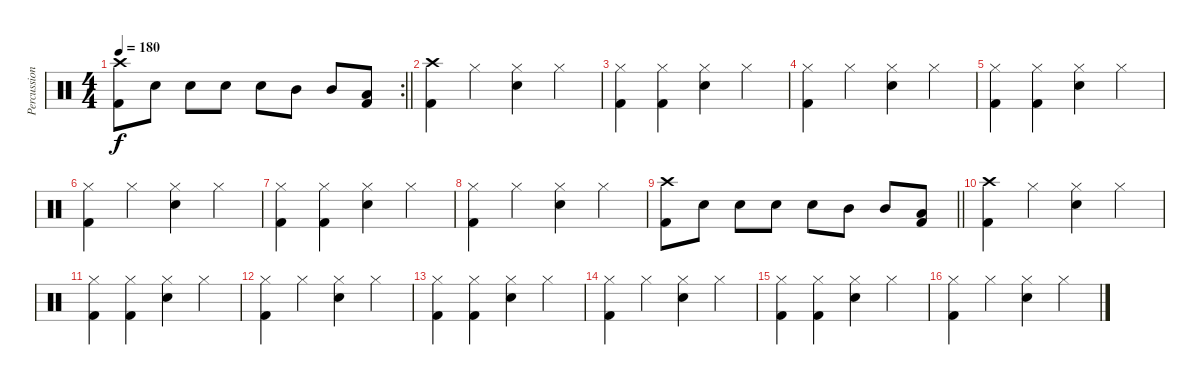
\track ("Percussion" "Percussion") {instrument percussion}
\staff {score}
\articulation defaults
\rc 2
\ts (4 4)
\tempo 180
\clef neutral
\barLineRight lightlight
\ks c
("Crash high (hit)" "Kick (hit) 2").8{dy f} "Snare (hit) 2".8 "Snare (hit) 2".8 "Snare (hit) 2".8 "Snare (hit) 2".8 "Mid Tom (hit)".8 "Mid Tom (hit)".8 ("Kick (hit) 2" "Low Tom (hit)").8 |
("Crash high (hit)" "Kick (hit) 2").4 "Hi-Hat (closed)".4 ("Hi-Hat (closed)" "Snare (hit) 2").4 "Hi-Hat (closed)".4 |
("Hi-Hat (closed)" "Kick (hit) 2").4 ("Hi-Hat (closed)" "Kick (hit) 2").4 ("Hi-Hat (closed)" "Snare (hit) 2").4 "Hi-Hat (closed)".4 |
("Hi-Hat (closed)" "Kick (hit) 2").4 "Hi-Hat (closed)".4 ("Hi-Hat (closed)" "Snare (hit) 2").4 "Hi-Hat (closed)".4 |
("Hi-Hat (closed)" "Kick (hit) 2").4 ("Hi-Hat (closed)" "Kick (hit) 2").4 ("Hi-Hat (closed)" "Snare (hit) 2").4 "Hi-Hat (closed)".4 |
("Hi-Hat (closed)" "Kick (hit) 2").4 "Hi-Hat (closed)".4 ("Hi-Hat (closed)" "Snare (hit) 2").4 "Hi-Hat (closed)".4 |
("Hi-Hat (closed)" "Kick (hit) 2").4 ("Hi-Hat (closed)" "Kick (hit) 2").4 ("Hi-Hat (closed)" "Snare (hit) 2").4 "Hi-Hat (closed)".4 |
("Hi-Hat (closed)" "Kick (hit) 2").4 "Hi-Hat (closed)".4 ("Hi-Hat (closed)" "Snare (hit) 2").4 "Hi-Hat (closed)".4 |
\barLineRight lightlight
("Crash high (hit)" "Kick (hit) 2").8 "Snare (hit) 2".8 "Snare (hit) 2".8 "Snare (hit) 2".8 "Snare (hit) 2".8 "Mid Tom (hit)".8 "Mid Tom (hit)".8 ("Kick (hit) 2" "Low Tom (hit)").8 |
("Crash high (hit)" "Kick (hit) 2").4 "Hi-Hat (closed)".4 ("Hi-Hat (closed)" "Snare (hit) 2").4 "Hi-Hat (closed)".4 |
("Hi-Hat (closed)" "Kick (hit) 2").4 ("Hi-Hat (closed)" "Kick (hit) 2").4 ("Hi-Hat (closed)" "Snare (hit) 2").4 "Hi-Hat (closed)".4 |
("Hi-Hat (closed)" "Kick (hit) 2").4 "Hi-Hat (closed)".4 ("Hi-Hat (closed)" "Snare (hit) 2").4 "Hi-Hat (closed)".4 |
("Hi-Hat (closed)" "Kick (hit) 2").4 ("Hi-Hat (closed)" "Kick (hit) 2").4 ("Hi-Hat (closed)" "Snare (hit) 2").4 "Hi-Hat (closed)".4 |
("Hi-Hat (closed)" "Kick (hit) 2").4 "Hi-Hat (closed)".4 ("Hi-Hat (closed)" "Snare (hit) 2").4 "Hi-Hat (closed)".4 |
("Hi-Hat (closed)" "Kick (hit) 2").4 ("Hi-Hat (closed)" "Kick (hit) 2").4 ("Hi-Hat (closed)" "Snare (hit) 2").4 "Hi-Hat (closed)".4 |
("Hi-Hat (closed)" "Kick (hit) 2").4 "Hi-Hat (closed)".4 ("Hi-Hat (closed)" "Snare (hit) 2").4 "Hi-Hat (closed)".4
